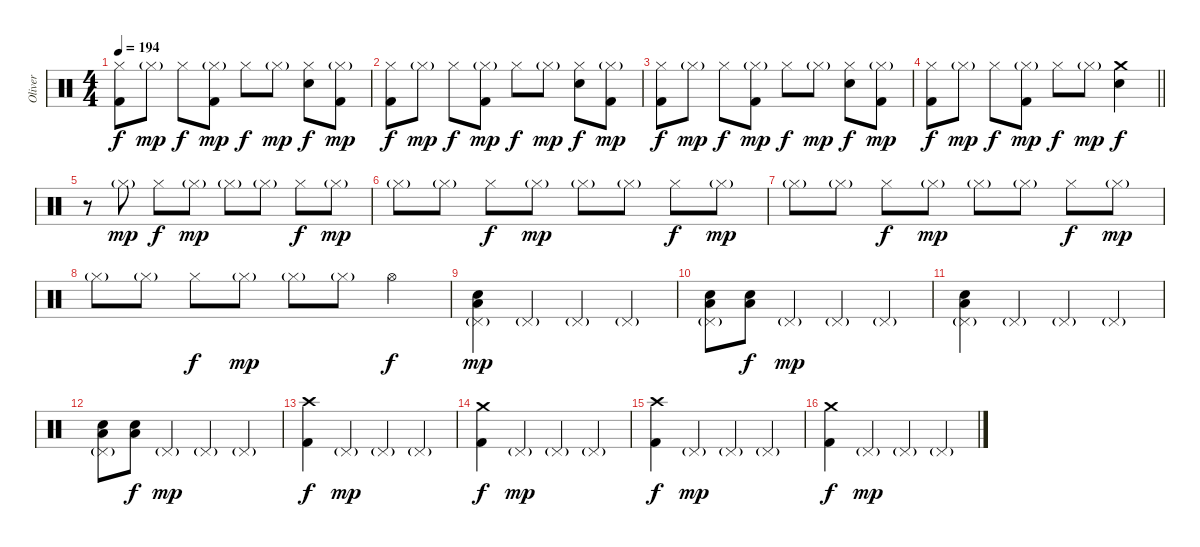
\track ("Oliver" "Oliver") {instrument percussion}
\staff {score}
\articulation defaults
\ts (4 4)
\tempo 194
\clef neutral
\ks c
("Hi-Hat (closed)" "Kick (hit) 2").8{dy f} "Hi-Hat (closed)"{g}.8{dy mp} "Hi-Hat (closed)".8{dy f} ("Hi-Hat (closed)"{g} "Kick (hit) 2").8{dy mp} "Hi-Hat (closed)".8{dy f} "Hi-Hat (closed)"{g}.8{dy mp} ("Hi-Hat (closed)" "Electric Snare (hit)").8{dy f} ("Hi-Hat (closed)"{g} "Kick (hit) 2").8{dy mp} |
("Hi-Hat (closed)" "Kick (hit) 2").8{dy f} "Hi-Hat (closed)"{g}.8{dy mp} "Hi-Hat (closed)".8{dy f} ("Hi-Hat (closed)"{g} "Kick (hit) 2").8{dy mp} "Hi-Hat (closed)".8{dy f} "Hi-Hat (closed)"{g}.8{dy mp} ("Hi-Hat (closed)" "Electric Snare (hit)").8{dy f} ("Hi-Hat (closed)"{g} "Kick (hit) 2").8{dy mp} |
("Hi-Hat (closed)" "Kick (hit) 2").8{dy f} "Hi-Hat (closed)"{g}.8{dy mp} "Hi-Hat (closed)".8{dy f} ("Hi-Hat (closed)"{g} "Kick (hit) 2").8{dy mp} "Hi-Hat (closed)".8{dy f} "Hi-Hat (closed)"{g}.8{dy mp} ("Hi-Hat (closed)" "Electric Snare (hit)").8{dy f} ("Hi-Hat (closed)"{g} "Kick (hit) 2").8{dy mp} |
\barLineRight lightlight
("Hi-Hat (closed)" "Kick (hit) 2").8{dy f} "Hi-Hat (closed)"{g}.8{dy mp} "Hi-Hat (closed)".8{dy f} ("Hi-Hat (closed)"{g} "Kick (hit) 2").8{dy mp} "Hi-Hat (closed)".8{dy f} "Hi-Hat (closed)"{g}.8{dy mp} ("Crash medium (hit)" "Electric Snare (hit)").4{dy f} |
\section ("" "")
r.8 "Hi-Hat (closed)"{g}.8{dy mp} "Hi-Hat (closed)".8{dy f} "Hi-Hat (closed)"{g}.8{dy mp} "Hi-Hat (closed)"{g}.8 "Hi-Hat (closed)"{g}.8 "Hi-Hat (closed)".8{dy f} "Hi-Hat (closed)"{g}.8{dy mp} |
"Hi-Hat (closed)"{g}.8 "Hi-Hat (closed)"{g}.8 "Hi-Hat (closed)".8{dy f} "Hi-Hat (closed)"{g}.8{dy mp} "Hi-Hat (closed)"{g}.8 "Hi-Hat (closed)"{g}.8 "Hi-Hat (closed)".8{dy f} "Hi-Hat (closed)"{g}.8{dy mp} |
"Hi-Hat (closed)"{g}.8 "Hi-Hat (closed)"{g}.8 "Hi-Hat (closed)".8{dy f} "Hi-Hat (closed)"{g}.8{dy mp} "Hi-Hat (closed)"{g}.8 "Hi-Hat (closed)"{g}.8 "Hi-Hat (closed)".8{dy f} "Hi-Hat (closed)"{g}.8{dy mp} |
"Hi-Hat (closed)"{g}.8 "Hi-Hat (closed)"{g}.8 "Hi-Hat (closed)".8{dy f} "Hi-Hat (closed)"{g}.8{dy mp} "Hi-Hat (closed)"{g}.8 "Hi-Hat (closed)"{g}.8 "Hi-Hat (open)".4{dy f} |
("Pedal Hi-Hat (hit)"{g} "Electric Snare (hit)" "Low Floor Tom (hit)").4{dy mp} "Pedal Hi-Hat (hit)"{g}.4 "Pedal Hi-Hat (hit)"{g}.4 "Pedal Hi-Hat (hit)"{g}.4 |
("Pedal Hi-Hat (hit)"{g} "Electric Snare (hit)" "Low Floor Tom (hit)").8 ("Electric Snare (hit)" "Low Floor Tom (hit)").8{dy f} "Pedal Hi-Hat (hit)"{g}.4{dy mp} "Pedal Hi-Hat (hit)"{g}.4 "Pedal Hi-Hat (hit)"{g}.4 |
("Pedal Hi-Hat (hit)"{g} "Electric Snare (hit)" "Low Floor Tom (hit)").4 "Pedal Hi-Hat (hit)"{g}.4 "Pedal Hi-Hat (hit)"{g}.4 "Pedal Hi-Hat (hit)"{g}.4 |
("Pedal Hi-Hat (hit)"{g} "Electric Snare (hit)" "Low Floor Tom (hit)").8 ("Electric Snare (hit)" "Low Floor Tom (hit)").8{dy f} "Pedal Hi-Hat (hit)"{g}.4{dy mp} "Pedal Hi-Hat (hit)"{g}.4 "Pedal Hi-Hat (hit)"{g}.4 |
("Crash high (hit)" "Kick (hit) 2").4{dy f} "Pedal Hi-Hat (hit)"{g}.4{dy mp} "Pedal Hi-Hat (hit)"{g}.4 "Pedal Hi-Hat (hit)"{g}.4 |
("Crash medium (hit)" "Kick (hit) 2").4{dy f} "Pedal Hi-Hat (hit)"{g}.4{dy mp} "Pedal Hi-Hat (hit)"{g}.4 "Pedal Hi-Hat (hit)"{g}.4 |
("Crash high (hit)" "Kick (hit) 2").4{dy f} "Pedal Hi-Hat (hit)"{g}.4{dy mp} "Pedal Hi-Hat (hit)"{g}.4 "Pedal Hi-Hat (hit)"{g}.4 |
("Crash medium (hit)" "Kick (hit) 2").4{dy f} "Pedal Hi-Hat (hit)"{g}.4{dy mp} "Pedal Hi-Hat (hit)"{g}.4 "Pedal Hi-Hat (hit)"{g}.4
